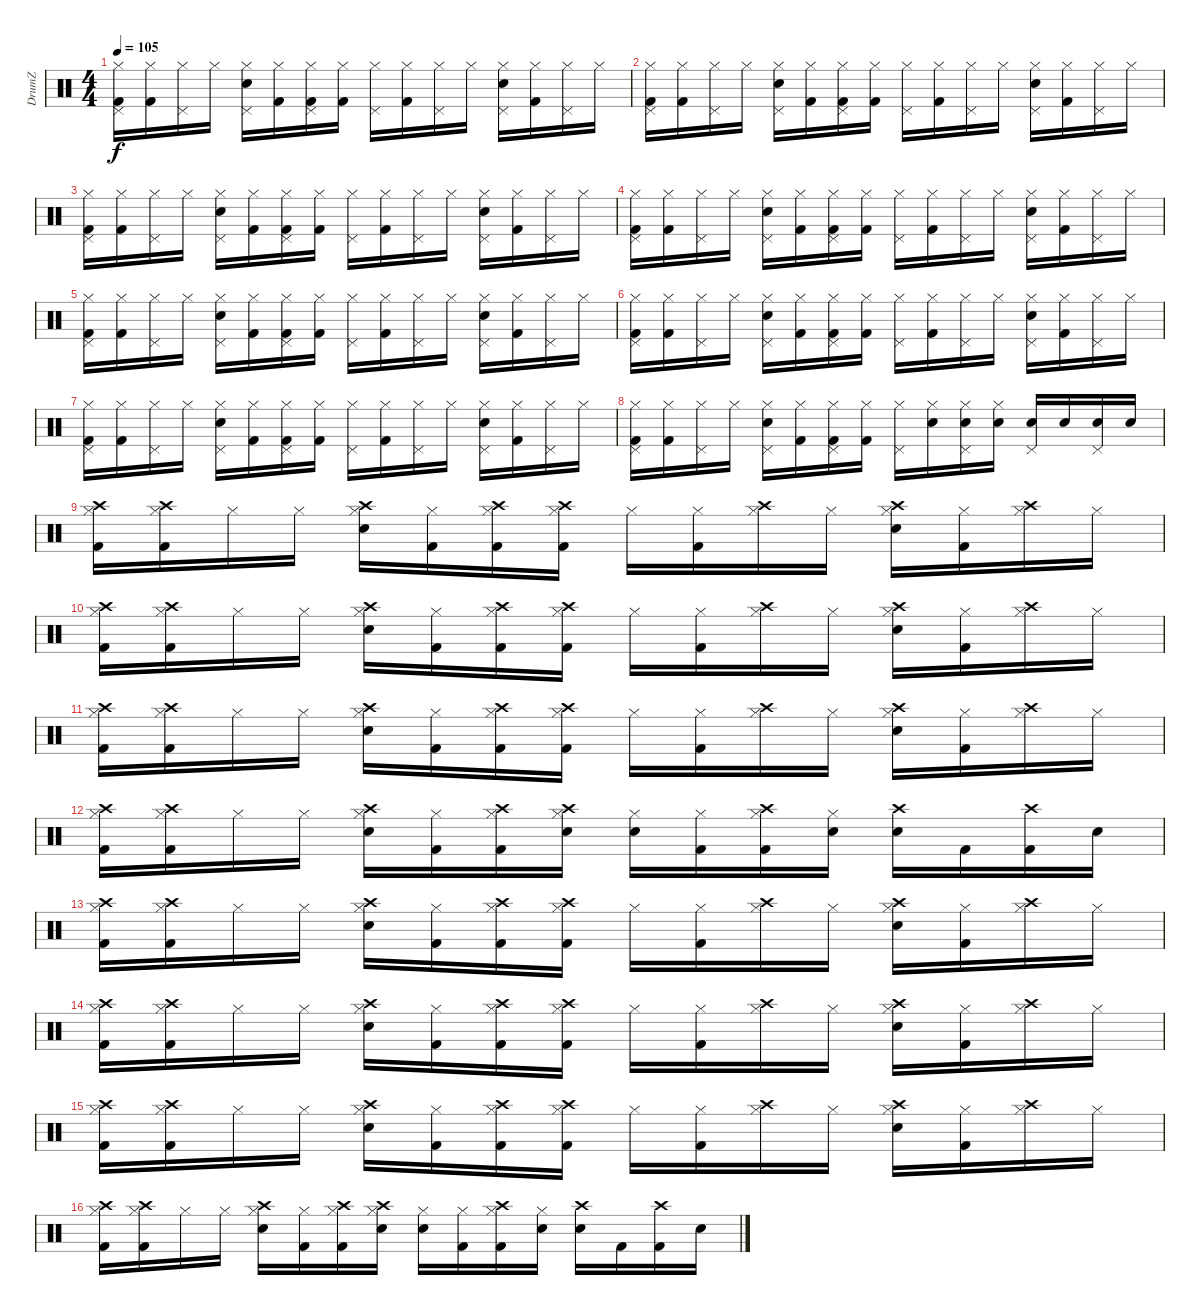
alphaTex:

\track ("DrumZ" "DrumZ") {instrument percussion}
\staff {score}
\articulation defaults
\ts (4 4)
\tempo 105
\clef neutral
\ks c
("Pedal Hi-Hat (hit)" "Hi-Hat (closed)" "Kick (hit) 2").16{dy f} ("Hi-Hat (closed)" "Kick (hit) 2").16 ("Pedal Hi-Hat (hit)" "Hi-Hat (closed)").16 "Hi-Hat (closed)".16 ("Pedal Hi-Hat (hit)" "Hi-Hat (closed)" "Electric Snare (hit)").16 ("Hi-Hat (closed)" "Kick (hit) 2").16 ("Pedal Hi-Hat (hit)" "Hi-Hat (closed)" "Kick (hit) 2").16 ("Hi-Hat (closed)" "Kick (hit) 2").16 ("Pedal Hi-Hat (hit)" "Hi-Hat (closed)").16 ("Hi-Hat (closed)" "Kick (hit) 2").16 ("Pedal Hi-Hat (hit)" "Hi-Hat (closed)").16 "Hi-Hat (closed)".16 ("Pedal Hi-Hat (hit)" "Hi-Hat (closed)" "Electric Snare (hit)").16 ("Hi-Hat (closed)" "Kick (hit) 2").16 ("Pedal Hi-Hat (hit)" "Hi-Hat (closed)").16 "Hi-Hat (closed)".16 |
("Pedal Hi-Hat (hit)" "Hi-Hat (closed)" "Kick (hit) 2").16 ("Hi-Hat (closed)" "Kick (hit) 2").16 ("Pedal Hi-Hat (hit)" "Hi-Hat (closed)").16 "Hi-Hat (closed)".16 ("Pedal Hi-Hat (hit)" "Hi-Hat (closed)" "Electric Snare (hit)").16 ("Hi-Hat (closed)" "Kick (hit) 2").16 ("Pedal Hi-Hat (hit)" "Hi-Hat (closed)" "Kick (hit) 2").16 ("Hi-Hat (closed)" "Kick (hit) 2").16 ("Pedal Hi-Hat (hit)" "Hi-Hat (closed)").16 ("Hi-Hat (closed)" "Kick (hit) 2").16 ("Pedal Hi-Hat (hit)" "Hi-Hat (closed)").16 "Hi-Hat (closed)".16 ("Pedal Hi-Hat (hit)" "Hi-Hat (closed)" "Electric Snare (hit)").16 ("Hi-Hat (closed)" "Kick (hit) 2").16 ("Pedal Hi-Hat (hit)" "Hi-Hat (closed)").16 "Hi-Hat (closed)".16 |
("Pedal Hi-Hat (hit)" "Hi-Hat (closed)" "Kick (hit) 2").16 ("Hi-Hat (closed)" "Kick (hit) 2").16 ("Pedal Hi-Hat (hit)" "Hi-Hat (closed)").16 "Hi-Hat (closed)".16 ("Pedal Hi-Hat (hit)" "Hi-Hat (closed)" "Electric Snare (hit)").16 ("Hi-Hat (closed)" "Kick (hit) 2").16 ("Pedal Hi-Hat (hit)" "Hi-Hat (closed)" "Kick (hit) 2").16 ("Hi-Hat (closed)" "Kick (hit) 2").16 ("Pedal Hi-Hat (hit)" "Hi-Hat (closed)").16 ("Hi-Hat (closed)" "Kick (hit) 2").16 ("Pedal Hi-Hat (hit)" "Hi-Hat (closed)").16 "Hi-Hat (closed)".16 ("Pedal Hi-Hat (hit)" "Hi-Hat (closed)" "Electric Snare (hit)").16 ("Hi-Hat (closed)" "Kick (hit) 2").16 ("Pedal Hi-Hat (hit)" "Hi-Hat (closed)").16 "Hi-Hat (closed)".16 |
("Pedal Hi-Hat (hit)" "Hi-Hat (closed)" "Kick (hit) 2").16 ("Hi-Hat (closed)" "Kick (hit) 2").16 ("Pedal Hi-Hat (hit)" "Hi-Hat (closed)").16 "Hi-Hat (closed)".16 ("Pedal Hi-Hat (hit)" "Hi-Hat (closed)" "Electric Snare (hit)").16 ("Hi-Hat (closed)" "Kick (hit) 2").16 ("Pedal Hi-Hat (hit)" "Hi-Hat (closed)" "Kick (hit) 2").16 ("Hi-Hat (closed)" "Kick (hit) 2").16 ("Pedal Hi-Hat (hit)" "Hi-Hat (closed)").16 ("Hi-Hat (closed)" "Kick (hit) 2").16 ("Pedal Hi-Hat (hit)" "Hi-Hat (closed)").16 "Hi-Hat (closed)".16 ("Pedal Hi-Hat (hit)" "Hi-Hat (closed)" "Electric Snare (hit)").16 ("Hi-Hat (closed)" "Kick (hit) 2").16 ("Pedal Hi-Hat (hit)" "Hi-Hat (closed)").16 "Hi-Hat (closed)".16 |
("Pedal Hi-Hat (hit)" "Hi-Hat (closed)" "Kick (hit) 2").16 ("Hi-Hat (closed)" "Kick (hit) 2").16 ("Pedal Hi-Hat (hit)" "Hi-Hat (closed)").16 "Hi-Hat (closed)".16 ("Pedal Hi-Hat (hit)" "Hi-Hat (closed)" "Electric Snare (hit)").16 ("Hi-Hat (closed)" "Kick (hit) 2").16 ("Pedal Hi-Hat (hit)" "Hi-Hat (closed)" "Kick (hit) 2").16 ("Hi-Hat (closed)" "Kick (hit) 2").16 ("Pedal Hi-Hat (hit)" "Hi-Hat (closed)").16 ("Hi-Hat (closed)" "Kick (hit) 2").16 ("Pedal Hi-Hat (hit)" "Hi-Hat (closed)").16 "Hi-Hat (closed)".16 ("Pedal Hi-Hat (hit)" "Hi-Hat (closed)" "Electric Snare (hit)").16 ("Hi-Hat (closed)" "Kick (hit) 2").16 ("Pedal Hi-Hat (hit)" "Hi-Hat (closed)").16 "Hi-Hat (closed)".16 |
("Pedal Hi-Hat (hit)" "Hi-Hat (closed)" "Kick (hit) 2").16 ("Hi-Hat (closed)" "Kick (hit) 2").16 ("Pedal Hi-Hat (hit)" "Hi-Hat (closed)").16 "Hi-Hat (closed)".16 ("Pedal Hi-Hat (hit)" "Hi-Hat (closed)" "Electric Snare (hit)").16 ("Hi-Hat (closed)" "Kick (hit) 2").16 ("Pedal Hi-Hat (hit)" "Hi-Hat (closed)" "Kick (hit) 2").16 ("Hi-Hat (closed)" "Kick (hit) 2").16 ("Pedal Hi-Hat (hit)" "Hi-Hat (closed)").16 ("Hi-Hat (closed)" "Kick (hit) 2").16 ("Pedal Hi-Hat (hit)" "Hi-Hat (closed)").16 "Hi-Hat (closed)".16 ("Pedal Hi-Hat (hit)" "Hi-Hat (closed)" "Electric Snare (hit)").16 ("Hi-Hat (closed)" "Kick (hit) 2").16 ("Pedal Hi-Hat (hit)" "Hi-Hat (closed)").16 "Hi-Hat (closed)".16 |
("Pedal Hi-Hat (hit)" "Hi-Hat (closed)" "Kick (hit) 2").16 ("Hi-Hat (closed)" "Kick (hit) 2").16 ("Pedal Hi-Hat (hit)" "Hi-Hat (closed)").16 "Hi-Hat (closed)".16 ("Pedal Hi-Hat (hit)" "Hi-Hat (closed)" "Electric Snare (hit)").16 ("Hi-Hat (closed)" "Kick (hit) 2").16 ("Pedal Hi-Hat (hit)" "Hi-Hat (closed)" "Kick (hit) 2").16 ("Hi-Hat (closed)" "Kick (hit) 2").16 ("Pedal Hi-Hat (hit)" "Hi-Hat (closed)").16 ("Hi-Hat (closed)" "Kick (hit) 2").16 ("Pedal Hi-Hat (hit)" "Hi-Hat (closed)").16 "Hi-Hat (closed)".16 ("Pedal Hi-Hat (hit)" "Hi-Hat (closed)" "Electric Snare (hit)").16 ("Hi-Hat (closed)" "Kick (hit) 2").16 ("Pedal Hi-Hat (hit)" "Hi-Hat (closed)").16 "Hi-Hat (closed)".16 |
("Pedal Hi-Hat (hit)" "Hi-Hat (closed)" "Kick (hit) 2").16 ("Hi-Hat (closed)" "Kick (hit) 2").16 ("Pedal Hi-Hat (hit)" "Hi-Hat (closed)").16 "Hi-Hat (closed)".16 ("Pedal Hi-Hat (hit)" "Hi-Hat (closed)" "Electric Snare (hit)").16 ("Hi-Hat (closed)" "Kick (hit) 2").16 ("Pedal Hi-Hat (hit)" "Hi-Hat (closed)" "Kick (hit) 2").16 ("Hi-Hat (closed)" "Kick (hit) 2").16 ("Pedal Hi-Hat (hit)" "Hi-Hat (closed)").16 ("Hi-Hat (closed)" "Electric Snare (hit)").16 ("Pedal Hi-Hat (hit)" "Hi-Hat (closed)" "Electric Snare (hit)").16 ("Hi-Hat (closed)" "Electric Snare (hit)").16 ("Pedal Hi-Hat (hit)" "Electric Snare (hit)").16 "Electric Snare (hit)".16 ("Pedal Hi-Hat (hit)" "Electric Snare (hit)").16 "Electric Snare (hit)".16 |
("Crash high (hit)" "Hi-Hat (closed)" "Kick (hit) 2").16 ("Crash high (hit)" "Hi-Hat (closed)" "Kick (hit) 2").16 "Hi-Hat (closed)".16 "Hi-Hat (closed)".16 ("Crash high (hit)" "Hi-Hat (closed)" "Electric Snare (hit)").16 ("Hi-Hat (closed)" "Kick (hit) 2").16 ("Crash high (hit)" "Hi-Hat (closed)" "Kick (hit) 2").16 ("Crash high (hit)" "Hi-Hat (closed)" "Kick (hit) 2").16 "Hi-Hat (closed)".16 ("Hi-Hat (closed)" "Kick (hit) 2").16 ("Crash high (hit)" "Hi-Hat (closed)").16 "Hi-Hat (closed)".16 ("Crash high (hit)" "Hi-Hat (closed)" "Electric Snare (hit)").16 ("Hi-Hat (closed)" "Kick (hit) 2").16 ("Crash high (hit)" "Hi-Hat (closed)").16 "Hi-Hat (closed)".16 |
("Crash high (hit)" "Hi-Hat (closed)" "Kick (hit) 2").16 ("Crash high (hit)" "Hi-Hat (closed)" "Kick (hit) 2").16 "Hi-Hat (closed)".16 "Hi-Hat (closed)".16 ("Crash high (hit)" "Hi-Hat (closed)" "Electric Snare (hit)").16 ("Hi-Hat (closed)" "Kick (hit) 2").16 ("Crash high (hit)" "Hi-Hat (closed)" "Kick (hit) 2").16 ("Crash high (hit)" "Hi-Hat (closed)" "Kick (hit) 2").16 "Hi-Hat (closed)".16 ("Hi-Hat (closed)" "Kick (hit) 2").16 ("Crash high (hit)" "Hi-Hat (closed)").16 "Hi-Hat (closed)".16 ("Crash high (hit)" "Hi-Hat (closed)" "Electric Snare (hit)").16 ("Hi-Hat (closed)" "Kick (hit) 2").16 ("Crash high (hit)" "Hi-Hat (closed)").16 "Hi-Hat (closed)".16 |
("Crash high (hit)" "Hi-Hat (closed)" "Kick (hit) 2").16 ("Crash high (hit)" "Hi-Hat (closed)" "Kick (hit) 2").16 "Hi-Hat (closed)".16 "Hi-Hat (closed)".16 ("Crash high (hit)" "Hi-Hat (closed)" "Electric Snare (hit)").16 ("Hi-Hat (closed)" "Kick (hit) 2").16 ("Crash high (hit)" "Hi-Hat (closed)" "Kick (hit) 2").16 ("Crash high (hit)" "Hi-Hat (closed)" "Kick (hit) 2").16 "Hi-Hat (closed)".16 ("Hi-Hat (closed)" "Kick (hit) 2").16 ("Crash high (hit)" "Hi-Hat (closed)").16 "Hi-Hat (closed)".16 ("Crash high (hit)" "Hi-Hat (closed)" "Electric Snare (hit)").16 ("Hi-Hat (closed)" "Kick (hit) 2").16 ("Crash high (hit)" "Hi-Hat (closed)").16 "Hi-Hat (closed)".16 |
("Crash high (hit)" "Hi-Hat (closed)" "Kick (hit) 2").16 ("Crash high (hit)" "Hi-Hat (closed)" "Kick (hit) 2").16 "Hi-Hat (closed)".16 "Hi-Hat (closed)".16 ("Crash high (hit)" "Hi-Hat (closed)" "Electric Snare (hit)").16 ("Hi-Hat (closed)" "Kick (hit) 2").16 ("Crash high (hit)" "Hi-Hat (closed)" "Kick (hit) 2").16 ("Crash high (hit)" "Hi-Hat (closed)" "Electric Snare (hit)").16 ("Hi-Hat (closed)" "Electric Snare (hit)").16 ("Hi-Hat (closed)" "Kick (hit) 2").16 ("Crash high (hit)" "Hi-Hat (closed)" "Kick (hit) 2").16 ("Hi-Hat (closed)" "Electric Snare (hit)").16 ("Crash high (hit)" "Electric Snare (hit)").16 "Kick (hit) 2".16 ("Crash high (hit)" "Kick (hit) 2").16 "Electric Snare (hit)".16 |
("Crash high (hit)" "Hi-Hat (closed)" "Kick (hit) 2").16 ("Crash high (hit)" "Hi-Hat (closed)" "Kick (hit) 2").16 "Hi-Hat (closed)".16 "Hi-Hat (closed)".16 ("Crash high (hit)" "Hi-Hat (closed)" "Electric Snare (hit)").16 ("Hi-Hat (closed)" "Kick (hit) 2").16 ("Crash high (hit)" "Hi-Hat (closed)" "Kick (hit) 2").16 ("Crash high (hit)" "Hi-Hat (closed)" "Kick (hit) 2").16 "Hi-Hat (closed)".16 ("Hi-Hat (closed)" "Kick (hit) 2").16 ("Crash high (hit)" "Hi-Hat (closed)").16 "Hi-Hat (closed)".16 ("Crash high (hit)" "Hi-Hat (closed)" "Electric Snare (hit)").16 ("Hi-Hat (closed)" "Kick (hit) 2").16 ("Crash high (hit)" "Hi-Hat (closed)").16 "Hi-Hat (closed)".16 |
("Crash high (hit)" "Hi-Hat (closed)" "Kick (hit) 2").16 ("Crash high (hit)" "Hi-Hat (closed)" "Kick (hit) 2").16 "Hi-Hat (closed)".16 "Hi-Hat (closed)".16 ("Crash high (hit)" "Hi-Hat (closed)" "Electric Snare (hit)").16 ("Hi-Hat (closed)" "Kick (hit) 2").16 ("Crash high (hit)" "Hi-Hat (closed)" "Kick (hit) 2").16 ("Crash high (hit)" "Hi-Hat (closed)" "Kick (hit) 2").16 "Hi-Hat (closed)".16 ("Hi-Hat (closed)" "Kick (hit) 2").16 ("Crash high (hit)" "Hi-Hat (closed)").16 "Hi-Hat (closed)".16 ("Crash high (hit)" "Hi-Hat (closed)" "Electric Snare (hit)").16 ("Hi-Hat (closed)" "Kick (hit) 2").16 ("Crash high (hit)" "Hi-Hat (closed)").16 "Hi-Hat (closed)".16 |
("Crash high (hit)" "Hi-Hat (closed)" "Kick (hit) 2").16 ("Crash high (hit)" "Hi-Hat (closed)" "Kick (hit) 2").16 "Hi-Hat (closed)".16 "Hi-Hat (closed)".16 ("Crash high (hit)" "Hi-Hat (closed)" "Electric Snare (hit)").16 ("Hi-Hat (closed)" "Kick (hit) 2").16 ("Crash high (hit)" "Hi-Hat (closed)" "Kick (hit) 2").16 ("Crash high (hit)" "Hi-Hat (closed)" "Kick (hit) 2").16 "Hi-Hat (closed)".16 ("Hi-Hat (closed)" "Kick (hit) 2").16 ("Crash high (hit)" "Hi-Hat (closed)").16 "Hi-Hat (closed)".16 ("Crash high (hit)" "Hi-Hat (closed)" "Electric Snare (hit)").16 ("Hi-Hat (closed)" "Kick (hit) 2").16 ("Crash high (hit)" "Hi-Hat (closed)").16 "Hi-Hat (closed)".16 |
("Crash high (hit)" "Hi-Hat (closed)" "Kick (hit) 2").16 ("Crash high (hit)" "Hi-Hat (closed)" "Kick (hit) 2").16 "Hi-Hat (closed)".16 "Hi-Hat (closed)".16 ("Crash high (hit)" "Hi-Hat (closed)" "Electric Snare (hit)").16 ("Hi-Hat (closed)" "Kick (hit) 2").16 ("Crash high (hit)" "Hi-Hat (closed)" "Kick (hit) 2").16 ("Crash high (hit)" "Hi-Hat (closed)" "Electric Snare (hit)").16 ("Hi-Hat (closed)" "Electric Snare (hit)").16 ("Hi-Hat (closed)" "Kick (hit) 2").16 ("Crash high (hit)" "Hi-Hat (closed)" "Kick (hit) 2").16 ("Hi-Hat (closed)" "Electric Snare (hit)").16 ("Crash high (hit)" "Electric Snare (hit)").16 "Kick (hit) 2".16 ("Crash high (hit)" "Kick (hit) 2").16 "Electric Snare (hit)".16
